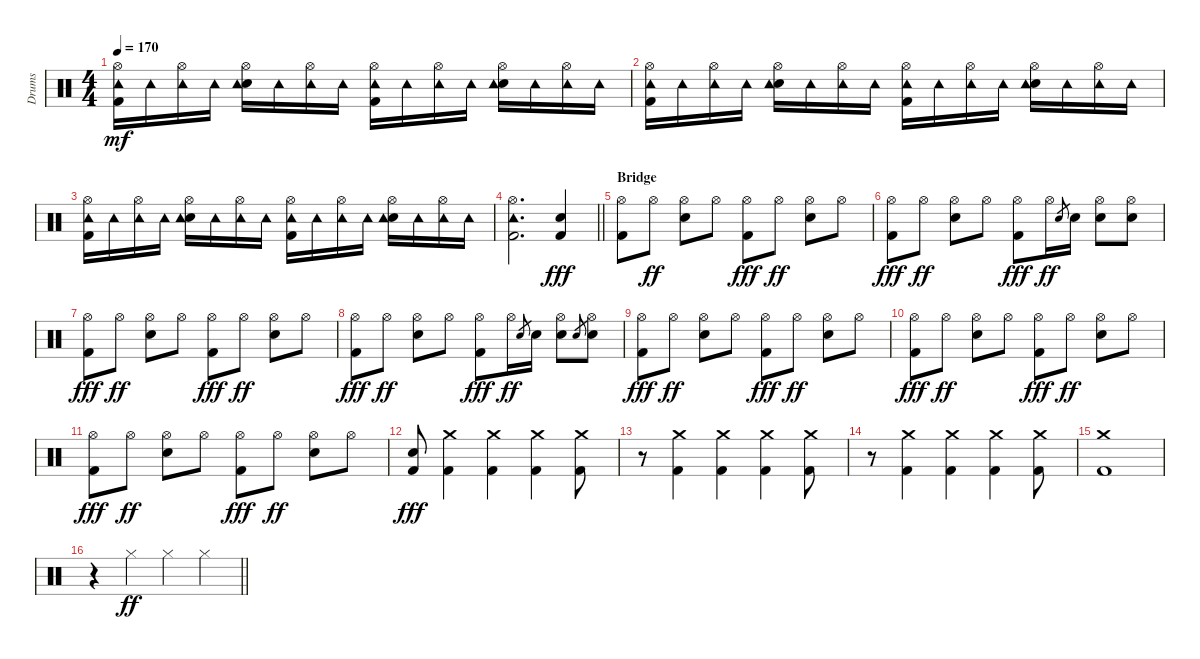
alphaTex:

\track ("Drums" "Drums") {instrument percussion}
\staff {score}
\articulation defaults
\ts (4 4)
\tempo 170
\clef neutral
\ks c
("Hi-Hat (open)" "Kick (hit) 2" "Tambourine (hit)").16{dy mf} "Tambourine (hit)".16 ("Hi-Hat (open)" "Tambourine (hit)").16 "Tambourine (hit)".16 ("Hi-Hat (open)" "Snare (hit) 2" "Tambourine (hit)").16 "Tambourine (hit)".16 ("Hi-Hat (open)" "Tambourine (hit)").16 "Tambourine (hit)".16 ("Hi-Hat (open)" "Kick (hit) 2" "Tambourine (hit)").16 "Tambourine (hit)".16 ("Hi-Hat (open)" "Tambourine (hit)").16 "Tambourine (hit)".16 ("Hi-Hat (open)" "Snare (hit) 2" "Tambourine (hit)").16 "Tambourine (hit)".16 ("Hi-Hat (open)" "Tambourine (hit)").16 "Tambourine (hit)".16 |
("Hi-Hat (open)" "Kick (hit) 2" "Tambourine (hit)").16 "Tambourine (hit)".16 ("Hi-Hat (open)" "Tambourine (hit)").16 "Tambourine (hit)".16 ("Hi-Hat (open)" "Snare (hit) 2" "Tambourine (hit)").16 "Tambourine (hit)".16 ("Hi-Hat (open)" "Tambourine (hit)").16 "Tambourine (hit)".16 ("Hi-Hat (open)" "Kick (hit) 2" "Tambourine (hit)").16 "Tambourine (hit)".16 ("Hi-Hat (open)" "Tambourine (hit)").16 "Tambourine (hit)".16 ("Hi-Hat (open)" "Snare (hit) 2" "Tambourine (hit)").16 "Tambourine (hit)".16 ("Hi-Hat (open)" "Tambourine (hit)").16 "Tambourine (hit)".16 |
("Hi-Hat (open)" "Kick (hit) 2" "Tambourine (hit)").16 "Tambourine (hit)".16 ("Hi-Hat (open)" "Tambourine (hit)").16 "Tambourine (hit)".16 ("Hi-Hat (open)" "Snare (hit) 2" "Tambourine (hit)").16 "Tambourine (hit)".16 ("Hi-Hat (open)" "Tambourine (hit)").16 "Tambourine (hit)".16 ("Hi-Hat (open)" "Kick (hit) 2" "Tambourine (hit)").16 "Tambourine (hit)".16 ("Hi-Hat (open)" "Tambourine (hit)").16 "Tambourine (hit)".16 ("Hi-Hat (open)" "Snare (hit) 2" "Tambourine (hit)").16 "Tambourine (hit)".16 ("Hi-Hat (open)" "Tambourine (hit)").16 "Tambourine (hit)".16 |
\barLineRight lightlight
("Hi-Hat (open)" "Kick (hit) 2" "Tambourine (hit)").2{d} ("Snare (hit) 2" "Kick (hit) 2").4{dy fff} |
\section ("" "Bridge")
("Hi-Hat (open)" "Kick (hit) 2").8 "Hi-Hat (open)".8{dy ff} ("Hi-Hat (open)" "Snare (hit) 2").8 "Hi-Hat (open)".8 ("Hi-Hat (open)" "Kick (hit) 2").8{dy fff} "Hi-Hat (open)".8{dy ff} ("Hi-Hat (open)" "Snare (hit) 2").8 "Hi-Hat (open)".8 |
("Hi-Hat (open)" "Kick (hit) 2").8{dy fff} "Hi-Hat (open)".8{dy ff} ("Hi-Hat (open)" "Snare (hit) 2").8 "Hi-Hat (open)".8 ("Hi-Hat (open)" "Kick (hit) 2").8{dy fff} "Hi-Hat (open)".16{dy ff} "Snare (hit) 2".8{gr} "Snare (hit) 2".16 ("Hi-Hat (open)" "Snare (hit) 2").8 ("Hi-Hat (open)" "Snare (hit) 2").8 |
("Hi-Hat (open)" "Kick (hit) 2").8{dy fff} "Hi-Hat (open)".8{dy ff} ("Hi-Hat (open)" "Snare (hit) 2").8 "Hi-Hat (open)".8 ("Hi-Hat (open)" "Kick (hit) 2").8{dy fff} "Hi-Hat (open)".8{dy ff} ("Hi-Hat (open)" "Snare (hit) 2").8 "Hi-Hat (open)".8 |
("Hi-Hat (open)" "Kick (hit) 2").8{dy fff} "Hi-Hat (open)".8{dy ff} ("Hi-Hat (open)" "Snare (hit) 2").8 "Hi-Hat (open)".8 ("Hi-Hat (open)" "Kick (hit) 2").8{dy fff} "Hi-Hat (open)".16{dy ff} "Snare (hit) 2".8{gr} "Snare (hit) 2".16 ("Hi-Hat (open)" "Snare (hit) 2").8 "Snare (hit) 2".8{gr} ("Hi-Hat (open)" "Snare (hit) 2").8 |
("Hi-Hat (open)" "Kick (hit) 2").8{dy fff} "Hi-Hat (open)".8{dy ff} ("Hi-Hat (open)" "Snare (hit) 2").8 "Hi-Hat (open)".8 ("Hi-Hat (open)" "Kick (hit) 2").8{dy fff} "Hi-Hat (open)".8{dy ff} ("Hi-Hat (open)" "Snare (hit) 2").8 "Hi-Hat (open)".8 |
("Hi-Hat (open)" "Kick (hit) 2").8{dy fff} "Hi-Hat (open)".8{dy ff} ("Hi-Hat (open)" "Snare (hit) 2").8 "Hi-Hat (open)".8 ("Hi-Hat (open)" "Kick (hit) 2").8{dy fff} "Hi-Hat (open)".8{dy ff} ("Hi-Hat (open)" "Snare (hit) 2").8 "Hi-Hat (open)".8 |
("Hi-Hat (open)" "Kick (hit) 2").8{dy fff} "Hi-Hat (open)".8{dy ff} ("Hi-Hat (open)" "Snare (hit) 2").8 "Hi-Hat (open)".8 ("Hi-Hat (open)" "Kick (hit) 2").8{dy fff} "Hi-Hat (open)".8{dy ff} ("Hi-Hat (open)" "Snare (hit) 2").8 "Hi-Hat (open)".8 |
("Snare (hit) 2" "Kick (hit) 2").8{dy fff} ("Crash medium (hit)" "Kick (hit) 2").4 ("Crash medium (hit)" "Kick (hit) 2").4 ("Crash medium (hit)" "Kick (hit) 2").4 ("Crash medium (hit)" "Kick (hit) 2").8 |
r.8 ("Crash medium (hit)" "Kick (hit) 2").4 ("Crash medium (hit)" "Kick (hit) 2").4 ("Crash medium (hit)" "Kick (hit) 2").4 ("Crash medium (hit)" "Kick (hit) 2").8 |
r.8 ("Crash medium (hit)" "Kick (hit) 2").4 ("Crash medium (hit)" "Kick (hit) 2").4 ("Crash medium (hit)" "Kick (hit) 2").4 ("Crash medium (hit)" "Kick (hit) 2").8 |
("Crash medium (hit)" "Kick (hit) 2").1 |
\barLineRight lightlight
r.4 "Hi-Hat (closed)".4{dy ff} "Hi-Hat (closed)".4 "Hi-Hat (closed)".4
